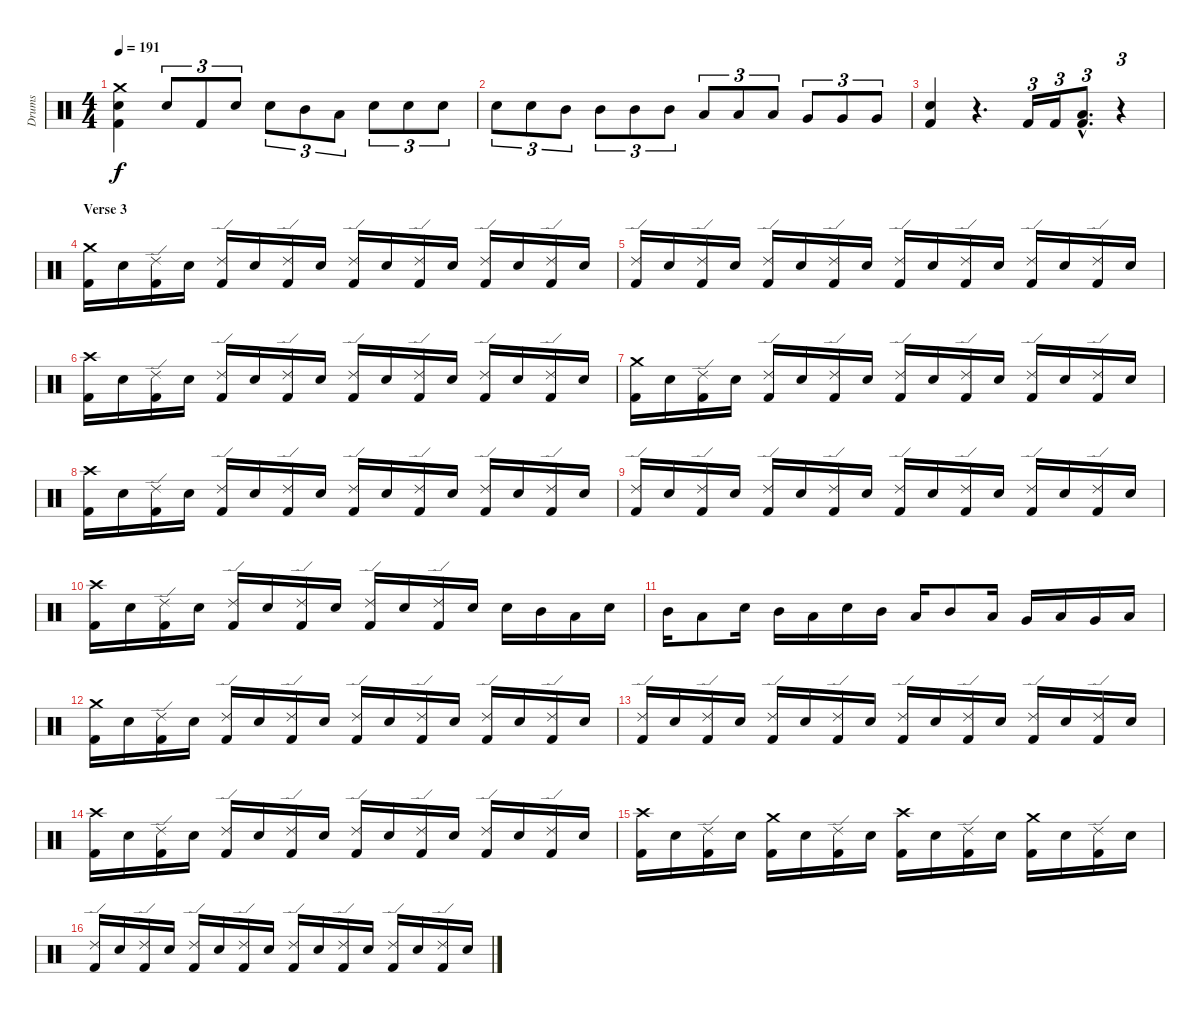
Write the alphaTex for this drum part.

\track ("Drums" "Drums") {instrument percussion}
\staff {score}
\articulation defaults
\ts (4 4)
\tempo 191
\clef neutral
\ks c
("Crash medium (hit)" "Electric Snare (hit)" "Kick (hit) 2").4{dy f} "Electric Snare (hit)".8{tu (3 2)} "Kick (hit) 2".8{tu (3 2)} "Electric Snare (hit)".8{tu (3 2)} "Electric Snare (hit)".8{tu (3 2)} "Mid Tom (hit)".8{tu (3 2)} "Low Tom (hit)".8{tu (3 2)} "Electric Snare (hit)".8{tu (3 2)} "Electric Snare (hit)".8{tu (3 2)} "Electric Snare (hit)".8{tu (3 2)} |
"Electric Snare (hit)".8{tu (3 2)} "Electric Snare (hit)".8{tu (3 2)} "Mid Tom (hit)".8{tu (3 2)} "Mid Tom (hit)".8{tu (3 2)} "Mid Tom (hit)".8{tu (3 2)} "Mid Tom (hit)".8{tu (3 2)} "Low Tom (hit)".8{tu (3 2)} "Low Tom (hit)".8{tu (3 2)} "Low Tom (hit)".8{tu (3 2)} "Very Low Tom (hit)".8{tu (3 2)} "Very Low Tom (hit)".8{tu (3 2)} "Very Low Tom (hit)".8{tu (3 2)} |
("Electric Snare (hit)" "Kick (hit) 2").4 r.4{d} "Kick (hit) 2".16{tu (3 2)} "Kick (hit) 2".16{tu (3 2)} ("Low Tom (hit)"{hac} "Kick (hit) 2"{hac}).8{d tu (3 2) bd 480} r.4{tu (3 2)} |
\section ("" "Verse 3")
("Crash medium (hit)" "Kick (hit) 2").16 "Electric Snare (hit)".16 ("Ride (edge) 2" "Kick (hit) 2").16 "Electric Snare (hit)".16 ("Ride (edge) 2" "Kick (hit) 2").16 "Electric Snare (hit)".16 ("Ride (edge) 2" "Kick (hit) 2").16 "Electric Snare (hit)".16 ("Ride (edge) 2" "Kick (hit) 2").16 "Electric Snare (hit)".16 ("Ride (edge) 2" "Kick (hit) 2").16 "Electric Snare (hit)".16 ("Ride (edge) 2" "Kick (hit) 2").16 "Electric Snare (hit)".16 ("Ride (edge) 2" "Kick (hit) 2").16 "Electric Snare (hit)".16 |
("Ride (edge) 2" "Kick (hit) 2").16 "Electric Snare (hit)".16 ("Ride (edge) 2" "Kick (hit) 2").16 "Electric Snare (hit)".16 ("Ride (edge) 2" "Kick (hit) 2").16 "Electric Snare (hit)".16 ("Ride (edge) 2" "Kick (hit) 2").16 "Electric Snare (hit)".16 ("Ride (edge) 2" "Kick (hit) 2").16 "Electric Snare (hit)".16 ("Ride (edge) 2" "Kick (hit) 2").16 "Electric Snare (hit)".16 ("Ride (edge) 2" "Kick (hit) 2").16 "Electric Snare (hit)".16 ("Ride (edge) 2" "Kick (hit) 2").16 "Electric Snare (hit)".16 |
("Crash high (hit)" "Kick (hit) 2").16 "Electric Snare (hit)".16 ("Ride (edge) 2" "Kick (hit) 2").16 "Electric Snare (hit)".16 ("Ride (edge) 2" "Kick (hit) 2").16 "Electric Snare (hit)".16 ("Ride (edge) 2" "Kick (hit) 2").16 "Electric Snare (hit)".16 ("Ride (edge) 2" "Kick (hit) 2").16 "Electric Snare (hit)".16 ("Ride (edge) 2" "Kick (hit) 2").16 "Electric Snare (hit)".16 ("Ride (edge) 2" "Kick (hit) 2").16 "Electric Snare (hit)".16 ("Ride (edge) 2" "Kick (hit) 2").16 "Electric Snare (hit)".16 |
("Crash medium (hit)" "Kick (hit) 2").16 "Electric Snare (hit)".16 ("Ride (edge) 2" "Kick (hit) 2").16 "Electric Snare (hit)".16 ("Ride (edge) 2" "Kick (hit) 2").16 "Electric Snare (hit)".16 ("Ride (edge) 2" "Kick (hit) 2").16 "Electric Snare (hit)".16 ("Ride (edge) 2" "Kick (hit) 2").16 "Electric Snare (hit)".16 ("Ride (edge) 2" "Kick (hit) 2").16 "Electric Snare (hit)".16 ("Ride (edge) 2" "Kick (hit) 2").16 "Electric Snare (hit)".16 ("Ride (edge) 2" "Kick (hit) 2").16 "Electric Snare (hit)".16 |
("Crash high (hit)" "Kick (hit) 2").16 "Electric Snare (hit)".16 ("Ride (edge) 2" "Kick (hit) 2").16 "Electric Snare (hit)".16 ("Ride (edge) 2" "Kick (hit) 2").16 "Electric Snare (hit)".16 ("Ride (edge) 2" "Kick (hit) 2").16 "Electric Snare (hit)".16 ("Ride (edge) 2" "Kick (hit) 2").16 "Electric Snare (hit)".16 ("Ride (edge) 2" "Kick (hit) 2").16 "Electric Snare (hit)".16 ("Ride (edge) 2" "Kick (hit) 2").16 "Electric Snare (hit)".16 ("Ride (edge) 2" "Kick (hit) 2").16 "Electric Snare (hit)".16 |
("Ride (edge) 2" "Kick (hit) 2").16 "Electric Snare (hit)".16 ("Ride (edge) 2" "Kick (hit) 2").16 "Electric Snare (hit)".16 ("Ride (edge) 2" "Kick (hit) 2").16 "Electric Snare (hit)".16 ("Ride (edge) 2" "Kick (hit) 2").16 "Electric Snare (hit)".16 ("Ride (edge) 2" "Kick (hit) 2").16 "Electric Snare (hit)".16 ("Ride (edge) 2" "Kick (hit) 2").16 "Electric Snare (hit)".16 ("Ride (edge) 2" "Kick (hit) 2").16 "Electric Snare (hit)".16 ("Ride (edge) 2" "Kick (hit) 2").16 "Electric Snare (hit)".16 |
("Crash high (hit)" "Kick (hit) 2").16 "Electric Snare (hit)".16 ("Ride (edge) 2" "Kick (hit) 2").16 "Electric Snare (hit)".16 ("Ride (edge) 2" "Kick (hit) 2").16 "Electric Snare (hit)".16 ("Ride (edge) 2" "Kick (hit) 2").16 "Electric Snare (hit)".16 ("Ride (edge) 2" "Kick (hit) 2").16 "Electric Snare (hit)".16 ("Ride (edge) 2" "Kick (hit) 2").16 "Electric Snare (hit)".16 "Snare (hit) 2".16 "Mid Tom (hit)".16 "Low Tom (hit)".16 "Snare (hit) 2".16 |
"Mid Tom (hit)".16 "Low Tom (hit)".8 "Snare (hit) 2".16 "Mid Tom (hit)".16 "Low Tom (hit)".16 "Snare (hit) 2".16 "Mid Tom (hit)".16 "Low Tom (hit)".16 "Mid Tom (hit)".8 "Low Tom (hit)".16 "Very Low Tom (hit)".16 "Low Tom (hit)".16 "Very Low Tom (hit)".16 "Low Floor Tom (hit)".16 |
("Crash medium (hit)" "Kick (hit) 2").16 "Electric Snare (hit)".16 ("Ride (edge) 2" "Kick (hit) 2").16 "Electric Snare (hit)".16 ("Ride (edge) 2" "Kick (hit) 2").16 "Electric Snare (hit)".16 ("Ride (edge) 2" "Kick (hit) 2").16 "Electric Snare (hit)".16 ("Ride (edge) 2" "Kick (hit) 2").16 "Electric Snare (hit)".16 ("Ride (edge) 2" "Kick (hit) 2").16 "Electric Snare (hit)".16 ("Ride (edge) 2" "Kick (hit) 2").16 "Electric Snare (hit)".16 ("Ride (edge) 2" "Kick (hit) 2").16 "Electric Snare (hit)".16 |
("Ride (edge) 2" "Kick (hit) 2").16 "Electric Snare (hit)".16 ("Ride (edge) 2" "Kick (hit) 2").16 "Electric Snare (hit)".16 ("Ride (edge) 2" "Kick (hit) 2").16 "Electric Snare (hit)".16 ("Ride (edge) 2" "Kick (hit) 2").16 "Electric Snare (hit)".16 ("Ride (edge) 2" "Kick (hit) 2").16 "Electric Snare (hit)".16 ("Ride (edge) 2" "Kick (hit) 2").16 "Electric Snare (hit)".16 ("Ride (edge) 2" "Kick (hit) 2").16 "Electric Snare (hit)".16 ("Ride (edge) 2" "Kick (hit) 2").16 "Electric Snare (hit)".16 |
("Crash high (hit)" "Kick (hit) 2").16 "Electric Snare (hit)".16 ("Ride (edge) 2" "Kick (hit) 2").16 "Electric Snare (hit)".16 ("Ride (edge) 2" "Kick (hit) 2").16 "Electric Snare (hit)".16 ("Ride (edge) 2" "Kick (hit) 2").16 "Electric Snare (hit)".16 ("Ride (edge) 2" "Kick (hit) 2").16 "Electric Snare (hit)".16 ("Ride (edge) 2" "Kick (hit) 2").16 "Electric Snare (hit)".16 ("Ride (edge) 2" "Kick (hit) 2").16 "Electric Snare (hit)".16 ("Ride (edge) 2" "Kick (hit) 2").16 "Electric Snare (hit)".16 |
("Crash high (hit)" "Kick (hit) 2").16 "Electric Snare (hit)".16 ("Ride (edge) 2" "Kick (hit) 2").16 "Electric Snare (hit)".16 ("Crash medium (hit)" "Kick (hit) 2").16 "Electric Snare (hit)".16 ("Ride (edge) 2" "Kick (hit) 2").16 "Electric Snare (hit)".16 ("Crash high (hit)" "Kick (hit) 2").16 "Electric Snare (hit)".16 ("Ride (edge) 2" "Kick (hit) 2").16 "Electric Snare (hit)".16 ("Crash medium (hit)" "Kick (hit) 2").16 "Electric Snare (hit)".16 ("Ride (edge) 2" "Kick (hit) 2").16 "Electric Snare (hit)".16 |
("Ride (edge) 2" "Kick (hit) 2").16 "Electric Snare (hit)".16 ("Ride (edge) 2" "Kick (hit) 2").16 "Electric Snare (hit)".16 ("Ride (edge) 2" "Kick (hit) 2").16 "Electric Snare (hit)".16 ("Ride (edge) 2" "Kick (hit) 2").16 "Electric Snare (hit)".16 ("Ride (edge) 2" "Kick (hit) 2").16 "Electric Snare (hit)".16 ("Ride (edge) 2" "Kick (hit) 2").16 "Electric Snare (hit)".16 ("Ride (edge) 2" "Kick (hit) 2").16 "Electric Snare (hit)".16 ("Ride (edge) 2" "Kick (hit) 2").16 "Electric Snare (hit)".16
